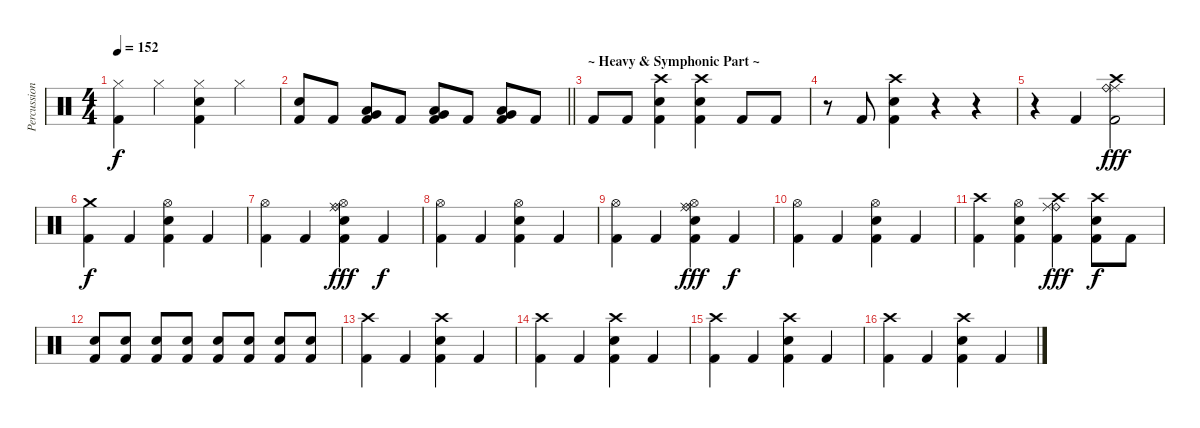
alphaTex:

\track ("Percussion" "Percussion") {instrument percussion}
\staff {score}
\articulation defaults
\ts (4 4)
\tempo 152
\clef neutral
\ks c
("Hi-Hat (closed)" "Kick (hit) 2").4{dy f} "Hi-Hat (closed)".4 ("Hi-Hat (closed)" "Electric Snare (hit)" "Kick (hit) 2").4 "Hi-Hat (closed)".4 |
\barLineRight lightlight
("Electric Snare (hit)" "Kick (hit) 2").8 "Kick (hit) 2".8 ("Low Tom (hit)" "Very Low Tom (hit)" "Kick (hit) 2").8 "Kick (hit) 2".8 ("Low Tom (hit)" "Very Low Tom (hit)" "Kick (hit) 2").8 "Kick (hit) 2".8 ("Very Low Tom (hit)" "Low Floor Tom (hit)" "Kick (hit) 2").8 "Kick (hit) 2".8 |
\section ("" "~ Heavy & Symphonic Part ~")
"Kick (hit) 2".8 "Kick (hit) 2".8 ("Crash high (hit)" "Electric Snare (hit)" "Kick (hit) 2").4 ("Crash high (hit)" "Electric Snare (hit)" "Kick (hit) 2").4 "Kick (hit) 2".8 "Kick (hit) 2".8 |
r.8 "Kick (hit) 2".8 ("Crash high (hit)" "Electric Snare (hit)" "Kick (hit) 2").4 r.4 r.4 |
r.4 "Kick (hit) 2".4 ("Ride (middle)" "Crash high (hit)" "Ride (bell)" "Kick (hit) 2").2{dy fff} |
("Crash medium (hit)" "Kick (hit) 2").4{dy f} "Kick (hit) 2".4 ("Hi-Hat (open)" "Electric Snare (hit)" "Kick (hit) 2").4 "Kick (hit) 2".4 |
("Hi-Hat (open)" "Kick (hit) 2").4 "Kick (hit) 2".4 ("Ride (middle)" "Ride (bell)" "Hi-Hat (open)" "Electric Snare (hit)" "Kick (hit) 2").4{dy fff} "Kick (hit) 2".4{dy f} |
("Hi-Hat (open)" "Kick (hit) 2").4 "Kick (hit) 2".4 ("Hi-Hat (open)" "Electric Snare (hit)" "Kick (hit) 2").4 "Kick (hit) 2".4 |
("Hi-Hat (open)" "Kick (hit) 2").4 "Kick (hit) 2".4 ("Ride (middle)" "Ride (bell)" "Hi-Hat (open)" "Electric Snare (hit)" "Kick (hit) 2").4{dy fff} "Kick (hit) 2".4{dy f} |
("Hi-Hat (open)" "Kick (hit) 2").4 "Kick (hit) 2".4 ("Hi-Hat (open)" "Electric Snare (hit)" "Kick (hit) 2").4 "Kick (hit) 2".4 |
("Crash high (hit)" "Kick (hit) 2").4 ("Hi-Hat (open)" "Electric Snare (hit)" "Kick (hit) 2").4 ("Ride (bell)" "Ride (middle)" "Crash high (hit)" "Kick (hit) 2").4{dy fff} ("Crash high (hit)" "Electric Snare (hit)" "Kick (hit) 2").8{dy f} "Kick (hit) 2".8 |
("Electric Snare (hit)" "Kick (hit) 2").8 ("Electric Snare (hit)" "Kick (hit) 2").8 ("Electric Snare (hit)" "Kick (hit) 2").8 ("Electric Snare (hit)" "Kick (hit) 2").8 ("Electric Snare (hit)" "Kick (hit) 2").8 ("Electric Snare (hit)" "Kick (hit) 2").8 ("Electric Snare (hit)" "Kick (hit) 2").8 ("Electric Snare (hit)" "Kick (hit) 2").8 |
("Crash high (hit)" "Kick (hit) 2").4 "Kick (hit) 2".4 ("Crash high (hit)" "Electric Snare (hit)" "Kick (hit) 2").4 "Kick (hit) 2".4 |
("Crash high (hit)" "Kick (hit) 2").4 "Kick (hit) 2".4 ("Crash high (hit)" "Electric Snare (hit)" "Kick (hit) 2").4 "Kick (hit) 2".4 |
("Crash high (hit)" "Kick (hit) 2").4 "Kick (hit) 2".4 ("Crash high (hit)" "Electric Snare (hit)" "Kick (hit) 2").4 "Kick (hit) 2".4 |
("Crash high (hit)" "Kick (hit) 2").4 "Kick (hit) 2".4 ("Crash high (hit)" "Electric Snare (hit)" "Kick (hit) 2").4 "Kick (hit) 2".4
